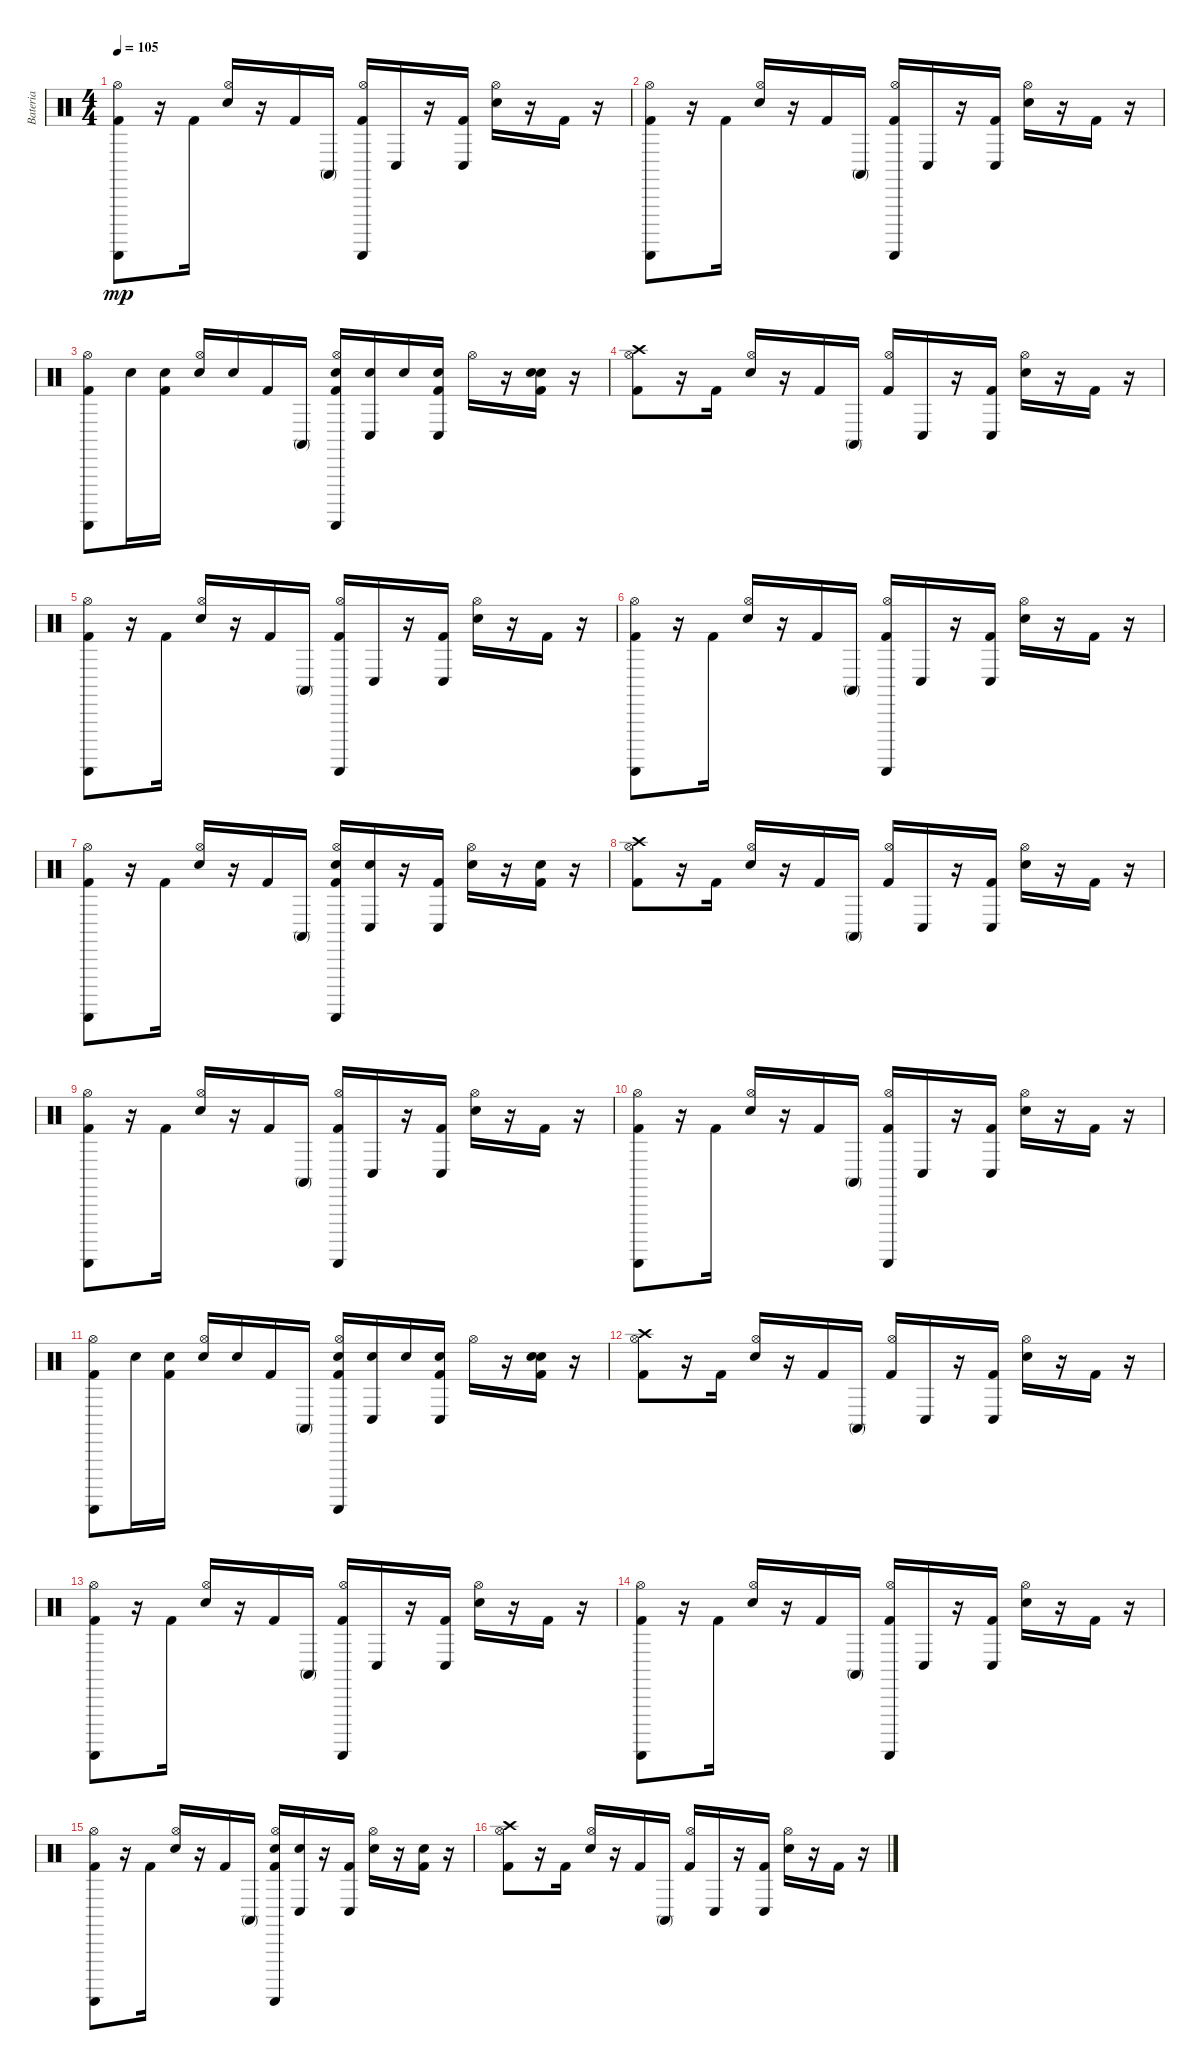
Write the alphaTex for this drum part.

\track ("Bateria" "Bateria") {instrument percussion}
\staff {score}
\articulation defaults
\ts (4 4)
\tempo 105
\clef neutral
\ks c
("Kick (hit) 2" "Guiro (scrap-return)" "Hi-Hat (open)").8{dy mp} r.16 "Kick (hit) 2".16 ("Electric Snare (hit)" "Hi-Hat (open)").16 r.16 "Kick (hit) 2".16 "Conga high (mute)".16 ("Kick (hit) 2" "Guiro (scrap-return)" "Hi-Hat (open)").16 "Conga low (hit)".16 r.16 ("Conga low (hit)" "Kick (hit) 2").16 ("Electric Snare (hit)" "Hi-Hat (open)").16 r.16 "Kick (hit) 2".16 r.16 |
("Kick (hit) 2" "Guiro (scrap-return)" "Hi-Hat (open)").8 r.16 "Kick (hit) 2".16 ("Electric Snare (hit)" "Hi-Hat (open)").16 r.16 "Kick (hit) 2".16 "Conga high (mute)".16 ("Kick (hit) 2" "Guiro (scrap-return)" "Hi-Hat (open)").16 "Conga low (hit)".16 r.16 ("Conga low (hit)" "Kick (hit) 2").16 ("Electric Snare (hit)" "Hi-Hat (open)").16 r.16 "Kick (hit) 2".16 r.16 |
("Kick (hit) 2" "Guiro (scrap-return)" "Hi-Hat (open)").8 "Electric Snare (hit)".16 ("Kick (hit) 2" "Electric Snare (hit)").16 ("Electric Snare (hit)" "Hi-Hat (open)").16 "Electric Snare (hit)".16 "Kick (hit) 2".16 "Conga high (mute)".16 ("Kick (hit) 2" "Guiro (scrap-return)" "Hi-Hat (open)" "Electric Snare (hit)").16 ("Conga low (hit)" "Electric Snare (hit)").16 "Electric Snare (hit)".16 ("Conga low (hit)" "Kick (hit) 2" "Electric Snare (hit)").16 "Hi-Hat (open)".16 r.16 ("Electric Snare (hit)" "Kick (hit) 2" "Electric Snare (hit)").16 r.16 |
("Kick (hit) 2" "Crash high (hit)" "Hi-Hat (open)").8 r.16 "Kick (hit) 2".16 ("Electric Snare (hit)" "Hi-Hat (open)").16 r.16 "Kick (hit) 2".16 "Conga high (mute)".16 ("Kick (hit) 2" "Hi-Hat (open)").16 "Conga low (hit)".16 r.16 ("Conga low (hit)" "Kick (hit) 2").16 ("Electric Snare (hit)" "Hi-Hat (open)").16 r.16 "Kick (hit) 2".16 r.16 |
("Kick (hit) 2" "Guiro (scrap-return)" "Hi-Hat (open)").8 r.16 "Kick (hit) 2".16 ("Electric Snare (hit)" "Hi-Hat (open)").16 r.16 "Kick (hit) 2".16 "Conga high (mute)".16 ("Kick (hit) 2" "Guiro (scrap-return)" "Hi-Hat (open)").16 "Conga low (hit)".16 r.16 ("Conga low (hit)" "Kick (hit) 2").16 ("Electric Snare (hit)" "Hi-Hat (open)").16 r.16 "Kick (hit) 2".16 r.16 |
("Kick (hit) 2" "Guiro (scrap-return)" "Hi-Hat (open)").8 r.16 "Kick (hit) 2".16 ("Electric Snare (hit)" "Hi-Hat (open)").16 r.16 "Kick (hit) 2".16 "Conga high (mute)".16 ("Kick (hit) 2" "Guiro (scrap-return)" "Hi-Hat (open)").16 "Conga low (hit)".16 r.16 ("Conga low (hit)" "Kick (hit) 2").16 ("Electric Snare (hit)" "Hi-Hat (open)").16 r.16 "Kick (hit) 2".16 r.16 |
("Kick (hit) 2" "Guiro (scrap-return)" "Hi-Hat (open)").8 r.16 "Kick (hit) 2".16 ("Electric Snare (hit)" "Hi-Hat (open)").16 r.16 "Kick (hit) 2".16 "Conga high (mute)".16 ("Kick (hit) 2" "Guiro (scrap-return)" "Hi-Hat (open)" "Electric Snare (hit)").16 ("Conga low (hit)" "Electric Snare (hit)").16 r.16 ("Conga low (hit)" "Kick (hit) 2").16 ("Electric Snare (hit)" "Hi-Hat (open)").16 r.16 ("Kick (hit) 2" "Electric Snare (hit)").16 r.16 |
("Kick (hit) 2" "Crash high (hit)" "Hi-Hat (open)").8 r.16 "Kick (hit) 2".16 ("Electric Snare (hit)" "Hi-Hat (open)").16 r.16 "Kick (hit) 2".16 "Conga high (mute)".16 ("Kick (hit) 2" "Hi-Hat (open)").16 "Conga low (hit)".16 r.16 ("Conga low (hit)" "Kick (hit) 2").16 ("Electric Snare (hit)" "Hi-Hat (open)").16 r.16 "Kick (hit) 2".16 r.16 |
("Kick (hit) 2" "Guiro (scrap-return)" "Hi-Hat (open)").8 r.16 "Kick (hit) 2".16 ("Electric Snare (hit)" "Hi-Hat (open)").16 r.16 "Kick (hit) 2".16 "Conga high (mute)".16 ("Kick (hit) 2" "Guiro (scrap-return)" "Hi-Hat (open)").16 "Conga low (hit)".16 r.16 ("Conga low (hit)" "Kick (hit) 2").16 ("Electric Snare (hit)" "Hi-Hat (open)").16 r.16 "Kick (hit) 2".16 r.16 |
("Kick (hit) 2" "Guiro (scrap-return)" "Hi-Hat (open)").8 r.16 "Kick (hit) 2".16 ("Electric Snare (hit)" "Hi-Hat (open)").16 r.16 "Kick (hit) 2".16 "Conga high (mute)".16 ("Kick (hit) 2" "Guiro (scrap-return)" "Hi-Hat (open)").16 "Conga low (hit)".16 r.16 ("Conga low (hit)" "Kick (hit) 2").16 ("Electric Snare (hit)" "Hi-Hat (open)").16 r.16 "Kick (hit) 2".16 r.16 |
("Kick (hit) 2" "Guiro (scrap-return)" "Hi-Hat (open)").8 "Electric Snare (hit)".16 ("Kick (hit) 2" "Electric Snare (hit)").16 ("Electric Snare (hit)" "Hi-Hat (open)").16 "Electric Snare (hit)".16 "Kick (hit) 2".16 "Conga high (mute)".16 ("Kick (hit) 2" "Guiro (scrap-return)" "Hi-Hat (open)" "Electric Snare (hit)").16 ("Conga low (hit)" "Electric Snare (hit)").16 "Electric Snare (hit)".16 ("Conga low (hit)" "Kick (hit) 2" "Electric Snare (hit)").16 "Hi-Hat (open)".16 r.16 ("Electric Snare (hit)" "Kick (hit) 2" "Electric Snare (hit)").16 r.16 |
("Kick (hit) 2" "Crash high (hit)" "Hi-Hat (open)").8 r.16 "Kick (hit) 2".16 ("Electric Snare (hit)" "Hi-Hat (open)").16 r.16 "Kick (hit) 2".16 "Conga high (mute)".16 ("Kick (hit) 2" "Hi-Hat (open)").16 "Conga low (hit)".16 r.16 ("Conga low (hit)" "Kick (hit) 2").16 ("Electric Snare (hit)" "Hi-Hat (open)").16 r.16 "Kick (hit) 2".16 r.16 |
("Kick (hit) 2" "Guiro (scrap-return)" "Hi-Hat (open)").8 r.16 "Kick (hit) 2".16 ("Electric Snare (hit)" "Hi-Hat (open)").16 r.16 "Kick (hit) 2".16 "Conga high (mute)".16 ("Kick (hit) 2" "Guiro (scrap-return)" "Hi-Hat (open)").16 "Conga low (hit)".16 r.16 ("Conga low (hit)" "Kick (hit) 2").16 ("Electric Snare (hit)" "Hi-Hat (open)").16 r.16 "Kick (hit) 2".16 r.16 |
("Kick (hit) 2" "Guiro (scrap-return)" "Hi-Hat (open)").8 r.16 "Kick (hit) 2".16 ("Electric Snare (hit)" "Hi-Hat (open)").16 r.16 "Kick (hit) 2".16 "Conga high (mute)".16 ("Kick (hit) 2" "Guiro (scrap-return)" "Hi-Hat (open)").16 "Conga low (hit)".16 r.16 ("Conga low (hit)" "Kick (hit) 2").16 ("Electric Snare (hit)" "Hi-Hat (open)").16 r.16 "Kick (hit) 2".16 r.16 |
("Kick (hit) 2" "Guiro (scrap-return)" "Hi-Hat (open)").8 r.16 "Kick (hit) 2".16 ("Electric Snare (hit)" "Hi-Hat (open)").16 r.16 "Kick (hit) 2".16 "Conga high (mute)".16 ("Kick (hit) 2" "Guiro (scrap-return)" "Hi-Hat (open)" "Electric Snare (hit)").16 ("Conga low (hit)" "Electric Snare (hit)").16 r.16 ("Conga low (hit)" "Kick (hit) 2").16 ("Electric Snare (hit)" "Hi-Hat (open)").16 r.16 ("Kick (hit) 2" "Electric Snare (hit)").16 r.16 |
("Kick (hit) 2" "Crash high (hit)" "Hi-Hat (open)").8 r.16 "Kick (hit) 2".16 ("Electric Snare (hit)" "Hi-Hat (open)").16 r.16 "Kick (hit) 2".16 "Conga high (mute)".16 ("Kick (hit) 2" "Hi-Hat (open)").16 "Conga low (hit)".16 r.16 ("Conga low (hit)" "Kick (hit) 2").16 ("Electric Snare (hit)" "Hi-Hat (open)").16 r.16 "Kick (hit) 2".16 r.16
